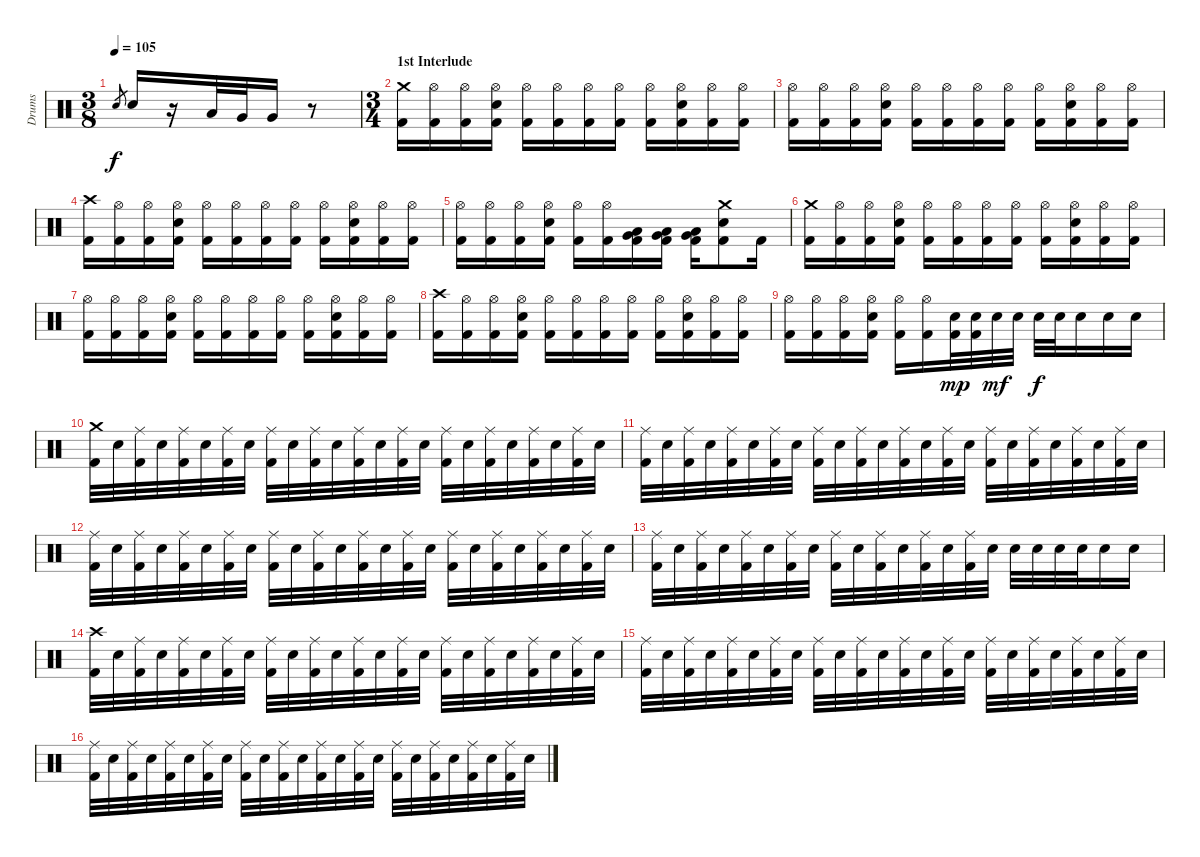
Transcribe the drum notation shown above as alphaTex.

\track ("Drums" "Drums") {instrument percussion}
\staff {score}
\articulation defaults
\ts (3 8)
\tempo 105
\clef neutral
\ks c "Electric Snare (hit)".8{gr dy f} "Electric Snare (hit)".16
r.16 "Low Tom (hit)".32 "Very Low Tom (hit)".32 "Very Low Tom (hit)".16 r.8 |
\ts (3 4)
\section ("" "1st Interlude")
("Kick (hit) 2" "Crash medium (hit)").16 ("Kick (hit) 2" "Hi-Hat (open)").16 ("Kick (hit) 2" "Hi-Hat (open)").16 ("Kick (hit) 2" "Electric Snare (hit)" "Hi-Hat (open)").16 ("Kick (hit) 2" "Hi-Hat (open)").16 ("Kick (hit) 2" "Hi-Hat (open)").16 ("Kick (hit) 2" "Hi-Hat (open)").16 ("Kick (hit) 2" "Hi-Hat (open)").16 ("Kick (hit) 2" "Hi-Hat (open)").16 ("Kick (hit) 2" "Electric Snare (hit)" "Hi-Hat (open)").16 ("Kick (hit) 2" "Hi-Hat (open)").16 ("Kick (hit) 2" "Hi-Hat (open)").16 |
("Kick (hit) 2" "Hi-Hat (open)").16 ("Kick (hit) 2" "Hi-Hat (open)").16 ("Kick (hit) 2" "Hi-Hat (open)").16 ("Kick (hit) 2" "Electric Snare (hit)" "Hi-Hat (open)").16 ("Kick (hit) 2" "Hi-Hat (open)").16 ("Kick (hit) 2" "Hi-Hat (open)").16 ("Kick (hit) 2" "Hi-Hat (open)").16 ("Kick (hit) 2" "Hi-Hat (open)").16 ("Kick (hit) 2" "Hi-Hat (open)").16 ("Kick (hit) 2" "Electric Snare (hit)" "Hi-Hat (open)").16 ("Kick (hit) 2" "Hi-Hat (open)").16 ("Kick (hit) 2" "Hi-Hat (open)").16 |
("Kick (hit) 2" "Crash high (hit)").16 ("Kick (hit) 2" "Hi-Hat (open)").16 ("Kick (hit) 2" "Hi-Hat (open)").16 ("Kick (hit) 2" "Electric Snare (hit)" "Hi-Hat (open)").16 ("Kick (hit) 2" "Hi-Hat (open)").16 ("Kick (hit) 2" "Hi-Hat (open)").16 ("Kick (hit) 2" "Hi-Hat (open)").16 ("Kick (hit) 2" "Hi-Hat (open)").16 ("Kick (hit) 2" "Hi-Hat (open)").16 ("Kick (hit) 2" "Electric Snare (hit)" "Hi-Hat (open)").16 ("Kick (hit) 2" "Hi-Hat (open)").16 ("Kick (hit) 2" "Hi-Hat (open)").16 |
("Kick (hit) 2" "Hi-Hat (open)").16 ("Kick (hit) 2" "Hi-Hat (open)").16 ("Kick (hit) 2" "Hi-Hat (open)").16 ("Kick (hit) 2" "Electric Snare (hit)" "Hi-Hat (open)").16 ("Kick (hit) 2" "Hi-Hat (open)").16 ("Kick (hit) 2" "Hi-Hat (open)").16 ("Kick (hit) 2" "Very Low Tom (hit)" "Low Tom (hit)").16 ("Kick (hit) 2" "Very Low Tom (hit)" "Low Tom (hit)").16 ("Kick (hit) 2" "Very Low Tom (hit)" "Low Tom (hit)").16 ("Kick (hit) 2" "Electric Snare (hit)" "Crash medium (hit)").8 "Kick (hit) 2".16 |
("Kick (hit) 2" "Crash medium (hit)").16 ("Kick (hit) 2" "Hi-Hat (open)").16 ("Kick (hit) 2" "Hi-Hat (open)").16 ("Kick (hit) 2" "Electric Snare (hit)" "Hi-Hat (open)").16 ("Kick (hit) 2" "Hi-Hat (open)").16 ("Kick (hit) 2" "Hi-Hat (open)").16 ("Kick (hit) 2" "Hi-Hat (open)").16 ("Kick (hit) 2" "Hi-Hat (open)").16 ("Kick (hit) 2" "Hi-Hat (open)").16 ("Kick (hit) 2" "Electric Snare (hit)" "Hi-Hat (open)").16 ("Kick (hit) 2" "Hi-Hat (open)").16 ("Kick (hit) 2" "Hi-Hat (open)").16 |
("Kick (hit) 2" "Hi-Hat (open)").16 ("Kick (hit) 2" "Hi-Hat (open)").16 ("Kick (hit) 2" "Hi-Hat (open)").16 ("Kick (hit) 2" "Electric Snare (hit)" "Hi-Hat (open)").16 ("Kick (hit) 2" "Hi-Hat (open)").16 ("Kick (hit) 2" "Hi-Hat (open)").16 ("Kick (hit) 2" "Hi-Hat (open)").16 ("Kick (hit) 2" "Hi-Hat (open)").16 ("Kick (hit) 2" "Hi-Hat (open)").16 ("Kick (hit) 2" "Electric Snare (hit)" "Hi-Hat (open)").16 ("Kick (hit) 2" "Hi-Hat (open)").16 ("Kick (hit) 2" "Hi-Hat (open)").16 |
("Kick (hit) 2" "Crash high (hit)").16 ("Kick (hit) 2" "Hi-Hat (open)").16 ("Kick (hit) 2" "Hi-Hat (open)").16 ("Kick (hit) 2" "Electric Snare (hit)" "Hi-Hat (open)").16 ("Kick (hit) 2" "Hi-Hat (open)").16 ("Kick (hit) 2" "Hi-Hat (open)").16 ("Kick (hit) 2" "Hi-Hat (open)").16 ("Kick (hit) 2" "Hi-Hat (open)").16 ("Kick (hit) 2" "Hi-Hat (open)").16 ("Kick (hit) 2" "Electric Snare (hit)" "Hi-Hat (open)").16 ("Kick (hit) 2" "Hi-Hat (open)").16 ("Kick (hit) 2" "Hi-Hat (open)").16 |
("Kick (hit) 2" "Hi-Hat (open)").16 ("Kick (hit) 2" "Hi-Hat (open)").16 ("Kick (hit) 2" "Hi-Hat (open)").16 ("Kick (hit) 2" "Electric Snare (hit)" "Hi-Hat (open)").16 ("Kick (hit) 2" "Hi-Hat (open)").16 ("Kick (hit) 2" "Hi-Hat (open)").16 ("Kick (hit) 2" "Electric Snare (hit)").32{dy mp} ("Kick (hit) 2" "Electric Snare (hit)").32 "Electric Snare (hit)".32{dy mf} "Electric Snare (hit)".32 "Electric Snare (hit)".32{dy f} "Electric Snare (hit)".32 "Electric Snare (hit)".16 "Electric Snare (hit)".16 "Electric Snare (hit)".16 |
("Kick (hit) 2" "Crash medium (hit)").32 "Electric Snare (hit)".32 ("Kick (hit) 2" "Ride (middle)").32 "Electric Snare (hit)".32 ("Kick (hit) 2" "Ride (middle)").32 "Electric Snare (hit)".32 ("Kick (hit) 2" "Ride (middle)").32 "Electric Snare (hit)".32 ("Kick (hit) 2" "Ride (middle)").32 "Electric Snare (hit)".32 ("Kick (hit) 2" "Ride (middle)").32 "Electric Snare (hit)".32 ("Kick (hit) 2" "Ride (middle)").32 "Electric Snare (hit)".32 ("Kick (hit) 2" "Ride (middle)").32 "Electric Snare (hit)".32 ("Kick (hit) 2" "Ride (middle)").32 "Electric Snare (hit)".32 ("Kick (hit) 2" "Ride (middle)").32 "Electric Snare (hit)".32 ("Kick (hit) 2" "Ride (middle)").32 "Electric Snare (hit)".32 ("Kick (hit) 2" "Ride (middle)").32 "Electric Snare (hit)".32 |
("Kick (hit) 2" "Ride (middle)").32 "Electric Snare (hit)".32 ("Kick (hit) 2" "Ride (middle)").32 "Electric Snare (hit)".32 ("Kick (hit) 2" "Ride (middle)").32 "Electric Snare (hit)".32 ("Kick (hit) 2" "Ride (middle)").32 "Electric Snare (hit)".32 ("Kick (hit) 2" "Ride (middle)").32 "Electric Snare (hit)".32 ("Kick (hit) 2" "Ride (middle)").32 "Electric Snare (hit)".32 ("Kick (hit) 2" "Ride (middle)").32 "Electric Snare (hit)".32 ("Kick (hit) 2" "Ride (middle)").32 "Electric Snare (hit)".32 ("Kick (hit) 2" "Ride (middle)").32 "Electric Snare (hit)".32 ("Kick (hit) 2" "Ride (middle)").32 "Electric Snare (hit)".32 ("Kick (hit) 2" "Ride (middle)").32 "Electric Snare (hit)".32 ("Kick (hit) 2" "Ride (middle)").32 "Electric Snare (hit)".32 |
("Kick (hit) 2" "Ride (middle)").32 "Electric Snare (hit)".32 ("Kick (hit) 2" "Ride (middle)").32 "Electric Snare (hit)".32 ("Kick (hit) 2" "Ride (middle)").32 "Electric Snare (hit)".32 ("Kick (hit) 2" "Ride (middle)").32 "Electric Snare (hit)".32 ("Kick (hit) 2" "Ride (middle)").32 "Electric Snare (hit)".32 ("Kick (hit) 2" "Ride (middle)").32 "Electric Snare (hit)".32 ("Kick (hit) 2" "Ride (middle)").32 "Electric Snare (hit)".32 ("Kick (hit) 2" "Ride (middle)").32 "Electric Snare (hit)".32 ("Kick (hit) 2" "Ride (middle)").32 "Electric Snare (hit)".32 ("Kick (hit) 2" "Ride (middle)").32 "Electric Snare (hit)".32 ("Kick (hit) 2" "Ride (middle)").32 "Electric Snare (hit)".32 ("Kick (hit) 2" "Ride (middle)").32 "Electric Snare (hit)".32 |
("Kick (hit) 2" "Ride (middle)").32 "Electric Snare (hit)".32 ("Kick (hit) 2" "Ride (middle)").32 "Electric Snare (hit)".32 ("Kick (hit) 2" "Ride (middle)").32 "Electric Snare (hit)".32 ("Kick (hit) 2" "Ride (middle)").32 "Electric Snare (hit)".32 ("Kick (hit) 2" "Ride (middle)").32 "Electric Snare (hit)".32 ("Kick (hit) 2" "Ride (middle)").32 "Electric Snare (hit)".32 ("Kick (hit) 2" "Ride (middle)").32 "Electric Snare (hit)".32 ("Kick (hit) 2" "Ride (middle)").32 "Electric Snare (hit)".32 "Electric Snare (hit)".32 "Electric Snare (hit)".32 "Electric Snare (hit)".32 "Electric Snare (hit)".32 "Electric Snare (hit)".16 "Electric Snare (hit)".16 |
("Kick (hit) 2" "Crash high (hit)").32 "Electric Snare (hit)".32 ("Kick (hit) 2" "Ride (middle)").32 "Electric Snare (hit)".32 ("Kick (hit) 2" "Ride (middle)").32 "Electric Snare (hit)".32 ("Kick (hit) 2" "Ride (middle)").32 "Electric Snare (hit)".32 ("Kick (hit) 2" "Ride (middle)").32 "Electric Snare (hit)".32 ("Kick (hit) 2" "Ride (middle)").32 "Electric Snare (hit)".32 ("Kick (hit) 2" "Ride (middle)").32 "Electric Snare (hit)".32 ("Kick (hit) 2" "Ride (middle)").32 "Electric Snare (hit)".32 ("Kick (hit) 2" "Ride (middle)").32 "Electric Snare (hit)".32 ("Kick (hit) 2" "Ride (middle)").32 "Electric Snare (hit)".32 ("Kick (hit) 2" "Ride (middle)").32 "Electric Snare (hit)".32 ("Kick (hit) 2" "Ride (middle)").32 "Electric Snare (hit)".32 |
("Kick (hit) 2" "Ride (middle)").32 "Electric Snare (hit)".32 ("Kick (hit) 2" "Ride (middle)").32 "Electric Snare (hit)".32 ("Kick (hit) 2" "Ride (middle)").32 "Electric Snare (hit)".32 ("Kick (hit) 2" "Ride (middle)").32 "Electric Snare (hit)".32 ("Kick (hit) 2" "Ride (middle)").32 "Electric Snare (hit)".32 ("Kick (hit) 2" "Ride (middle)").32 "Electric Snare (hit)".32 ("Kick (hit) 2" "Ride (middle)").32 "Electric Snare (hit)".32 ("Kick (hit) 2" "Ride (middle)").32 "Electric Snare (hit)".32 ("Kick (hit) 2" "Ride (middle)").32 "Electric Snare (hit)".32 ("Kick (hit) 2" "Ride (middle)").32 "Electric Snare (hit)".32 ("Kick (hit) 2" "Ride (middle)").32 "Electric Snare (hit)".32 ("Kick (hit) 2" "Ride (middle)").32 "Electric Snare (hit)".32 |
("Kick (hit) 2" "Ride (middle)").32 "Electric Snare (hit)".32 ("Kick (hit) 2" "Ride (middle)").32 "Electric Snare (hit)".32 ("Kick (hit) 2" "Ride (middle)").32 "Electric Snare (hit)".32 ("Kick (hit) 2" "Ride (middle)").32 "Electric Snare (hit)".32 ("Kick (hit) 2" "Ride (middle)").32 "Electric Snare (hit)".32 ("Kick (hit) 2" "Ride (middle)").32 "Electric Snare (hit)".32 ("Kick (hit) 2" "Ride (middle)").32 "Electric Snare (hit)".32 ("Kick (hit) 2" "Ride (middle)").32 "Electric Snare (hit)".32 ("Kick (hit) 2" "Ride (middle)").32 "Electric Snare (hit)".32 ("Kick (hit) 2" "Ride (middle)").32 "Electric Snare (hit)".32 ("Kick (hit) 2" "Ride (middle)").32 "Electric Snare (hit)".32 ("Kick (hit) 2" "Ride (middle)").32 "Electric Snare (hit)".32
